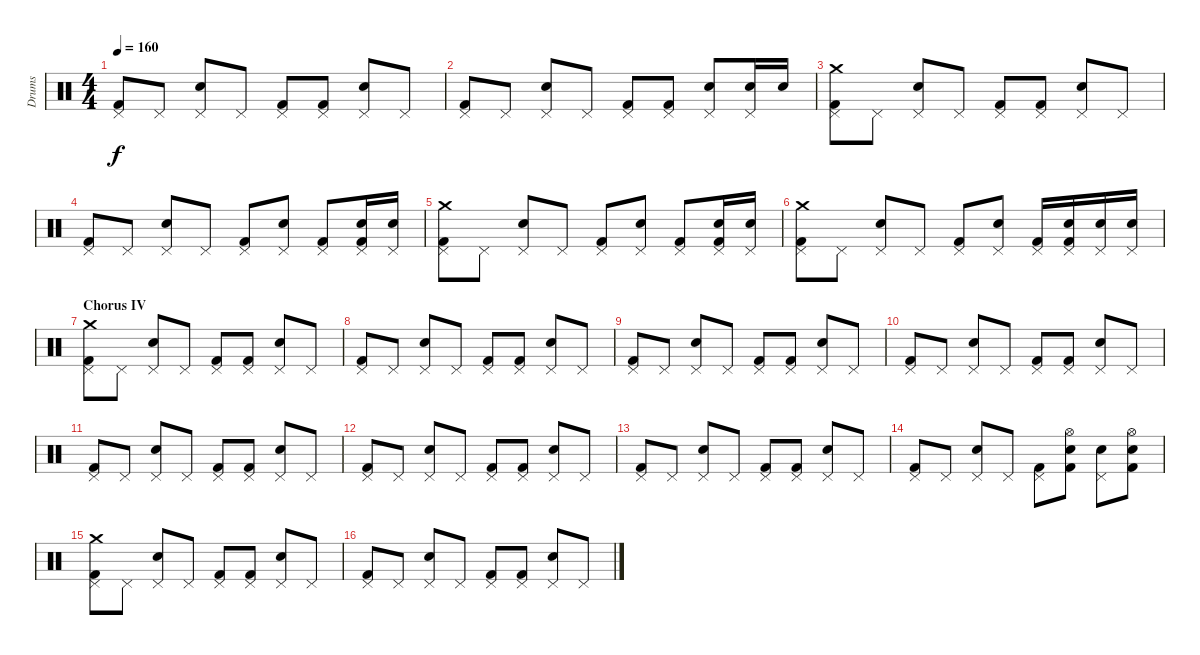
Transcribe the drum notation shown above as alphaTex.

\track ("Drums" "Drums") {instrument percussion}
\staff {score}
\articulation defaults
\ts (4 4)
\tempo 160
\clef neutral
\ks c
("Kick (hit) 2" "Pedal Hi-Hat (hit)").8{dy f} "Pedal Hi-Hat (hit)".8 ("Electric Snare (hit)" "Pedal Hi-Hat (hit)").8 "Pedal Hi-Hat (hit)".8 ("Kick (hit) 2" "Pedal Hi-Hat (hit)").8 ("Kick (hit) 2" "Pedal Hi-Hat (hit)").8 ("Electric Snare (hit)" "Pedal Hi-Hat (hit)").8 "Pedal Hi-Hat (hit)".8 |
("Kick (hit) 2" "Pedal Hi-Hat (hit)").8 "Pedal Hi-Hat (hit)".8 ("Electric Snare (hit)" "Pedal Hi-Hat (hit)").8 "Pedal Hi-Hat (hit)".8 ("Kick (hit) 2" "Pedal Hi-Hat (hit)").8 ("Kick (hit) 2" "Pedal Hi-Hat (hit)").8 ("Electric Snare (hit)" "Pedal Hi-Hat (hit)").8 ("Electric Snare (hit)" "Pedal Hi-Hat (hit)").16 "Electric Snare (hit)".16 |
("Kick (hit) 2" "Pedal Hi-Hat (hit)" "Crash medium (hit)").8 "Pedal Hi-Hat (hit)".8 ("Electric Snare (hit)" "Pedal Hi-Hat (hit)").8 "Pedal Hi-Hat (hit)".8 ("Kick (hit) 2" "Pedal Hi-Hat (hit)").8 ("Kick (hit) 2" "Pedal Hi-Hat (hit)").8 ("Electric Snare (hit)" "Pedal Hi-Hat (hit)").8 "Pedal Hi-Hat (hit)".8 |
("Kick (hit) 2" "Pedal Hi-Hat (hit)").8 "Pedal Hi-Hat (hit)".8 ("Electric Snare (hit)" "Pedal Hi-Hat (hit)").8 "Pedal Hi-Hat (hit)".8 ("Kick (hit) 2" "Pedal Hi-Hat (hit)").8 ("Pedal Hi-Hat (hit)" "Electric Snare (hit)").8 ("Kick (hit) 2" "Pedal Hi-Hat (hit)").8 ("Kick (hit) 2" "Pedal Hi-Hat (hit)" "Electric Snare (hit)").16 ("Electric Snare (hit)" "Pedal Hi-Hat (hit)").16 |
("Kick (hit) 2" "Pedal Hi-Hat (hit)" "Crash medium (hit)").8 "Pedal Hi-Hat (hit)".8 ("Electric Snare (hit)" "Pedal Hi-Hat (hit)").8 "Pedal Hi-Hat (hit)".8 ("Kick (hit) 2" "Pedal Hi-Hat (hit)").8 ("Pedal Hi-Hat (hit)" "Electric Snare (hit)").8 ("Kick (hit) 2" "Pedal Hi-Hat (hit)").8 ("Kick (hit) 2" "Pedal Hi-Hat (hit)" "Electric Snare (hit)").16 ("Electric Snare (hit)" "Pedal Hi-Hat (hit)").16 |
("Kick (hit) 2" "Pedal Hi-Hat (hit)" "Crash medium (hit)").8 "Pedal Hi-Hat (hit)".8 ("Electric Snare (hit)" "Pedal Hi-Hat (hit)").8 "Pedal Hi-Hat (hit)".8 ("Kick (hit) 2" "Pedal Hi-Hat (hit)").8 ("Pedal Hi-Hat (hit)" "Electric Snare (hit)").8 ("Kick (hit) 2" "Pedal Hi-Hat (hit)").16 ("Kick (hit) 2" "Pedal Hi-Hat (hit)" "Electric Snare (hit)").16 ("Electric Snare (hit)" "Pedal Hi-Hat (hit)").16 ("Electric Snare (hit)" "Pedal Hi-Hat (hit)").16 |
\section ("" "Chorus IV")
("Kick (hit) 2" "Pedal Hi-Hat (hit)" "Crash medium (hit)").8 "Pedal Hi-Hat (hit)".8 ("Electric Snare (hit)" "Pedal Hi-Hat (hit)").8 "Pedal Hi-Hat (hit)".8 ("Kick (hit) 2" "Pedal Hi-Hat (hit)").8 ("Kick (hit) 2" "Pedal Hi-Hat (hit)").8 ("Electric Snare (hit)" "Pedal Hi-Hat (hit)").8 "Pedal Hi-Hat (hit)".8 |
("Kick (hit) 2" "Pedal Hi-Hat (hit)").8 "Pedal Hi-Hat (hit)".8 ("Electric Snare (hit)" "Pedal Hi-Hat (hit)").8 "Pedal Hi-Hat (hit)".8 ("Kick (hit) 2" "Pedal Hi-Hat (hit)").8 ("Kick (hit) 2" "Pedal Hi-Hat (hit)").8 ("Electric Snare (hit)" "Pedal Hi-Hat (hit)").8 "Pedal Hi-Hat (hit)".8 |
("Kick (hit) 2" "Pedal Hi-Hat (hit)").8 "Pedal Hi-Hat (hit)".8 ("Electric Snare (hit)" "Pedal Hi-Hat (hit)").8 "Pedal Hi-Hat (hit)".8 ("Kick (hit) 2" "Pedal Hi-Hat (hit)").8 ("Kick (hit) 2" "Pedal Hi-Hat (hit)").8 ("Electric Snare (hit)" "Pedal Hi-Hat (hit)").8 "Pedal Hi-Hat (hit)".8 |
("Kick (hit) 2" "Pedal Hi-Hat (hit)").8 "Pedal Hi-Hat (hit)".8 ("Electric Snare (hit)" "Pedal Hi-Hat (hit)").8 "Pedal Hi-Hat (hit)".8 ("Kick (hit) 2" "Pedal Hi-Hat (hit)").8 ("Kick (hit) 2" "Pedal Hi-Hat (hit)").8 ("Electric Snare (hit)" "Pedal Hi-Hat (hit)").8 "Pedal Hi-Hat (hit)".8 |
("Kick (hit) 2" "Pedal Hi-Hat (hit)").8 "Pedal Hi-Hat (hit)".8 ("Electric Snare (hit)" "Pedal Hi-Hat (hit)").8 "Pedal Hi-Hat (hit)".8 ("Kick (hit) 2" "Pedal Hi-Hat (hit)").8 ("Kick (hit) 2" "Pedal Hi-Hat (hit)").8 ("Electric Snare (hit)" "Pedal Hi-Hat (hit)").8 "Pedal Hi-Hat (hit)".8 |
("Kick (hit) 2" "Pedal Hi-Hat (hit)").8 "Pedal Hi-Hat (hit)".8 ("Electric Snare (hit)" "Pedal Hi-Hat (hit)").8 "Pedal Hi-Hat (hit)".8 ("Kick (hit) 2" "Pedal Hi-Hat (hit)").8 ("Kick (hit) 2" "Pedal Hi-Hat (hit)").8 ("Electric Snare (hit)" "Pedal Hi-Hat (hit)").8 "Pedal Hi-Hat (hit)".8 |
("Kick (hit) 2" "Pedal Hi-Hat (hit)").8 "Pedal Hi-Hat (hit)".8 ("Electric Snare (hit)" "Pedal Hi-Hat (hit)").8 "Pedal Hi-Hat (hit)".8 ("Kick (hit) 2" "Pedal Hi-Hat (hit)").8 ("Kick (hit) 2" "Pedal Hi-Hat (hit)").8 ("Electric Snare (hit)" "Pedal Hi-Hat (hit)").8 "Pedal Hi-Hat (hit)".8 |
("Kick (hit) 2" "Pedal Hi-Hat (hit)").8 "Pedal Hi-Hat (hit)".8 ("Electric Snare (hit)" "Pedal Hi-Hat (hit)").8 "Pedal Hi-Hat (hit)".8 ("Kick (hit) 2" "Pedal Hi-Hat (hit)").8 ("Kick (hit) 2" "Electric Snare (hit)" "Hi-Hat (open)").8 ("Electric Snare (hit)" "Pedal Hi-Hat (hit)").8 ("Kick (hit) 2" "Electric Snare (hit)" "Hi-Hat (open)").8 |
("Kick (hit) 2" "Pedal Hi-Hat (hit)" "Crash medium (hit)").8 "Pedal Hi-Hat (hit)".8 ("Electric Snare (hit)" "Pedal Hi-Hat (hit)").8 "Pedal Hi-Hat (hit)".8 ("Kick (hit) 2" "Pedal Hi-Hat (hit)").8 ("Kick (hit) 2" "Pedal Hi-Hat (hit)").8 ("Electric Snare (hit)" "Pedal Hi-Hat (hit)").8 "Pedal Hi-Hat (hit)".8 |
("Kick (hit) 2" "Pedal Hi-Hat (hit)").8 "Pedal Hi-Hat (hit)".8 ("Electric Snare (hit)" "Pedal Hi-Hat (hit)").8 "Pedal Hi-Hat (hit)".8 ("Kick (hit) 2" "Pedal Hi-Hat (hit)").8 ("Kick (hit) 2" "Pedal Hi-Hat (hit)").8 ("Electric Snare (hit)" "Pedal Hi-Hat (hit)").8 "Pedal Hi-Hat (hit)".8
